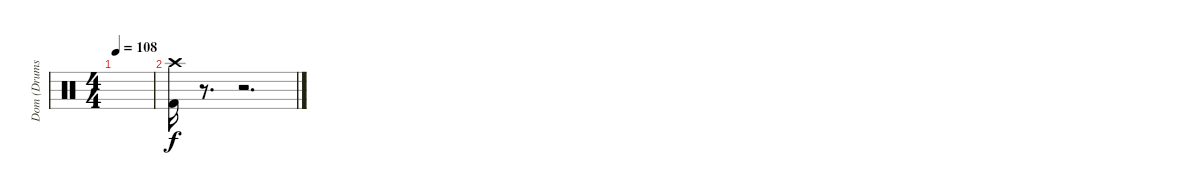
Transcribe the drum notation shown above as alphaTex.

\track ("Dom (Drums)" "Dom (Drums") {instrument percussion}
\staff {score}
\articulation defaults
\ts (4 4)
\tempo 108
\clef neutral
\ks c
|
("Crash high (hit)" "Kick (hit) 2").16 r.8{d} r.2{d}
